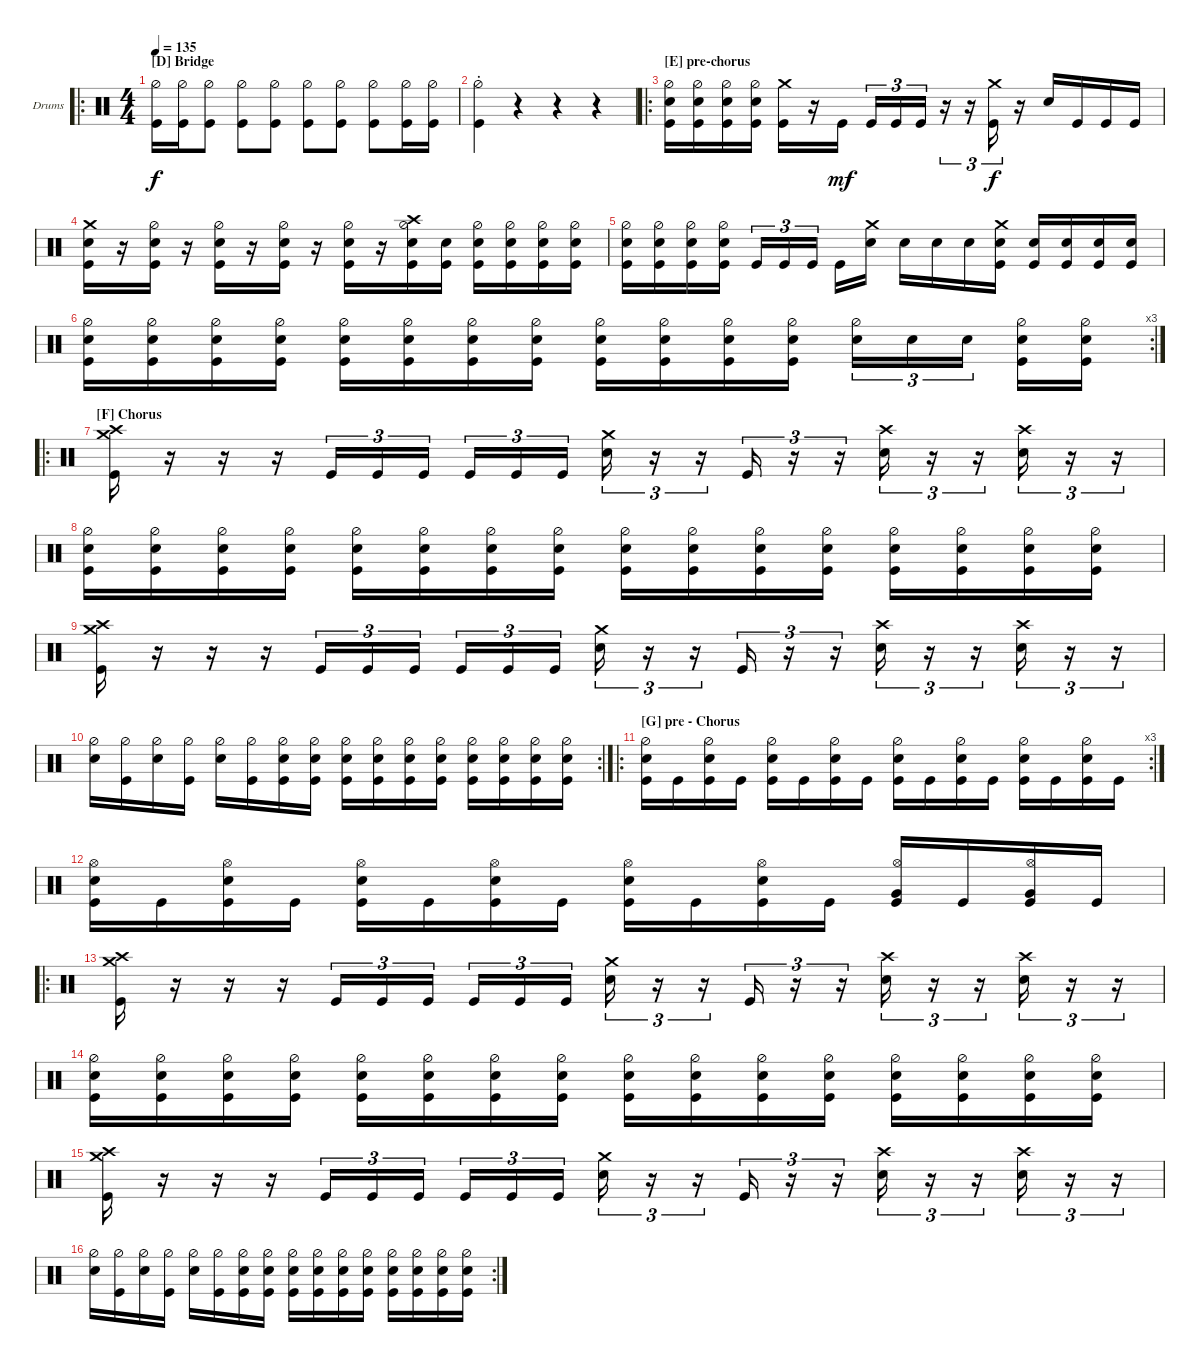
\bracketExtendMode groupsimilarinstruments
\firstSystemTrackNameOrientation horizontal
\otherSystemsTrackNameOrientation horizontal
\track ("Drumkit" "Drums") {instrument percussion}
\staff {score}
\articulation defaults
\ro
\ts (4 4)
\section ("D" "Bridge")
\tempo 135
\clef neutral
\ks c
("Hi-Hat (half)" "Kick (hit)").16{dy f} ("Hi-Hat (half)" "Kick (hit)").16 ("Hi-Hat (half)" "Kick (hit)").8 ("Hi-Hat (half)" "Kick (hit)").8 ("Hi-Hat (half)" "Kick (hit)").8 ("Hi-Hat (half)" "Kick (hit)").8 ("Hi-Hat (half)" "Kick (hit)").8 ("Hi-Hat (half)" "Kick (hit)").8 ("Hi-Hat (half)" "Kick (hit)").16 ("Hi-Hat (half)" "Kick (hit)").16 |
("Hi-Hat (half)"{st} "Kick (hit)").4 r.4 r.4 r.4 |
\ro
\section ("E" "pre-chorus")
("Snare (hit) 2" "Kick (hit)" "Hi-Hat (half)").16 ("Snare (hit) 2" "Kick (hit)" "Hi-Hat (half)").16 ("Snare (hit) 2" "Kick (hit)" "Hi-Hat (half)").16 ("Snare (hit) 2" "Kick (hit)" "Hi-Hat (half)").16 ("Kick (hit)" "Crash medium (hit)").16 r.16 "Kick (hit)".16{dy mf} "Kick (hit)".16{tu (3 2)} "Kick (hit)".16{tu (3 2)} "Kick (hit)".16{tu (3 2)} r.16{tu (3 2)} r.16{tu (3 2)} ("Crash medium (hit)" "Kick (hit)").16{tu (3 2) dy f} r.16 "Snare (hit) 2".16 "Kick (hit)".16 "Kick (hit)".16 "Kick (hit)".16 |
("Snare (hit) 2" "Crash medium (hit)" "Kick (hit)").16 r.16 ("Snare (hit) 2" "Hi-Hat (half)" "Kick (hit)").16 r.16 ("Snare (hit) 2" "Hi-Hat (half)" "Kick (hit)").16 r.16 ("Snare (hit) 2" "Hi-Hat (half)" "Kick (hit)").16 r.16 ("Hi-Hat (half)" "Snare (hit) 2" "Kick (hit)").16 r.16 ("Hi-Hat (half)" "Snare (hit) 2" "Crash high (hit)" "Kick (hit)").16 ("Snare (hit) 2" "Kick (hit)").16 ("Snare (hit) 2" "Hi-Hat (half)" "Kick (hit)").16 ("Snare (hit) 2" "Hi-Hat (half)" "Kick (hit)").16 ("Snare (hit) 2" "Hi-Hat (half)" "Kick (hit)").16 ("Snare (hit) 2" "Hi-Hat (half)" "Kick (hit)").16 |
("Snare (hit) 2" "Hi-Hat (half)" "Kick (hit)").16 ("Snare (hit) 2" "Hi-Hat (half)" "Kick (hit)").16 ("Snare (hit) 2" "Hi-Hat (half)" "Kick (hit)").16 ("Snare (hit) 2" "Hi-Hat (half)" "Kick (hit)").16 "Kick (hit)".16{tu (3 2)} "Kick (hit)".16{tu (3 2)} "Kick (hit)".16{tu (3 2)} "Kick (hit)".16 ("Snare (hit) 2" "Crash medium (hit)").16 "Snare (hit) 2".16 "Snare (hit) 2".16 "Snare (hit) 2".16 ("Kick (hit)" "Snare (hit) 2" "Crash medium (hit)").16 ("Kick (hit)" "Snare (hit) 2").16 ("Kick (hit)" "Snare (hit) 2").16 ("Kick (hit)" "Snare (hit) 2").16 ("Kick (hit)" "Snare (hit) 2").16 |
\rc 3
("Kick (hit)" "Snare (hit) 2" "Hi-Hat (half)").16 ("Kick (hit)" "Snare (hit) 2" "Hi-Hat (half)").16 ("Kick (hit)" "Snare (hit) 2" "Hi-Hat (half)").16 ("Kick (hit)" "Snare (hit) 2" "Hi-Hat (half)").16 ("Kick (hit)" "Snare (hit) 2" "Hi-Hat (half)").16 ("Kick (hit)" "Snare (hit) 2" "Hi-Hat (half)").16 ("Kick (hit)" "Snare (hit) 2" "Hi-Hat (half)").16 ("Kick (hit)" "Snare (hit) 2" "Hi-Hat (half)").16 ("Kick (hit)" "Snare (hit) 2" "Hi-Hat (half)").16 ("Kick (hit)" "Snare (hit) 2" "Hi-Hat (half)").16 ("Kick (hit)" "Snare (hit) 2" "Hi-Hat (half)").16 ("Kick (hit)" "Snare (hit) 2" "Hi-Hat (half)").16 ("Snare (hit) 2" "Hi-Hat (half)").16{tu (3 2)} "Snare (hit) 2".16{tu (3 2)} "Snare (hit) 2".16{tu (3 2)} ("Kick (hit)" "Snare (hit) 2" "Hi-Hat (half)").16 ("Kick (hit)" "Snare (hit) 2" "Hi-Hat (half)").16 |
\ro
\section ("F" "Chorus")
("Kick (hit)" "Crash medium (hit)" "Crash high (hit)").16 r.16 r.16 r.16 "Kick (hit)".16{tu (3 2)} "Kick (hit)".16{tu (3 2)} "Kick (hit)".16{tu (3 2)} "Kick (hit)".16{tu (3 2)} "Kick (hit)".16{tu (3 2)} "Kick (hit)".16{tu (3 2)} ("Snare (hit) 2" "Crash medium (hit)").16{tu (3 2)} r.16{tu (3 2)} r.16{tu (3 2)} "Kick (hit)".16{tu (3 2)} r.16{tu (3 2)} r.16{tu (3 2)} ("Snare (hit) 2" "Crash high (hit)").16{tu (3 2)} r.16{tu (3 2)} r.16{tu (3 2)} ("Snare (hit) 2" "Crash high (hit)").16{tu (3 2)} r.16{tu (3 2)} r.16{tu (3 2)} |
("Kick (hit)" "Snare (hit) 2" "Hi-Hat (half)").16 ("Kick (hit)" "Snare (hit) 2" "Hi-Hat (half)").16 ("Kick (hit)" "Snare (hit) 2" "Hi-Hat (half)").16 ("Kick (hit)" "Snare (hit) 2" "Hi-Hat (half)").16 ("Kick (hit)" "Snare (hit) 2" "Hi-Hat (half)").16 ("Kick (hit)" "Snare (hit) 2" "Hi-Hat (half)").16 ("Kick (hit)" "Snare (hit) 2" "Hi-Hat (half)").16 ("Kick (hit)" "Snare (hit) 2" "Hi-Hat (half)").16 ("Kick (hit)" "Snare (hit) 2" "Hi-Hat (half)").16 ("Kick (hit)" "Snare (hit) 2" "Hi-Hat (half)").16 ("Kick (hit)" "Snare (hit) 2" "Hi-Hat (half)").16 ("Kick (hit)" "Snare (hit) 2" "Hi-Hat (half)").16 ("Kick (hit)" "Snare (hit) 2" "Hi-Hat (half)").16 ("Kick (hit)" "Snare (hit) 2" "Hi-Hat (half)").16 ("Kick (hit)" "Snare (hit) 2" "Hi-Hat (half)").16 ("Kick (hit)" "Snare (hit) 2" "Hi-Hat (half)").16 |
("Kick (hit)" "Crash medium (hit)" "Crash high (hit)").16 r.16 r.16 r.16 "Kick (hit)".16{tu (3 2)} "Kick (hit)".16{tu (3 2)} "Kick (hit)".16{tu (3 2)} "Kick (hit)".16{tu (3 2)} "Kick (hit)".16{tu (3 2)} "Kick (hit)".16{tu (3 2)} ("Snare (hit) 2" "Crash medium (hit)").16{tu (3 2)} r.16{tu (3 2)} r.16{tu (3 2)} "Kick (hit)".16{tu (3 2)} r.16{tu (3 2)} r.16{tu (3 2)} ("Snare (hit) 2" "Crash high (hit)").16{tu (3 2)} r.16{tu (3 2)} r.16{tu (3 2)} ("Snare (hit) 2" "Crash high (hit)").16{tu (3 2)} r.16{tu (3 2)} r.16{tu (3 2)} |
\rc 2
("Snare (hit) 2" "Hi-Hat (half)").16 ("Kick (hit)" "Hi-Hat (half)").16 ("Snare (hit) 2" "Hi-Hat (half)").16 ("Kick (hit)" "Hi-Hat (half)").16 ("Snare (hit) 2" "Hi-Hat (half)").16 ("Kick (hit)" "Hi-Hat (half)").16 ("Kick (hit)" "Snare (hit) 2" "Hi-Hat (half)").16 ("Kick (hit)" "Snare (hit) 2" "Hi-Hat (half)").16 ("Kick (hit)" "Snare (hit) 2" "Hi-Hat (half)").16 ("Kick (hit)" "Snare (hit) 2" "Hi-Hat (half)").16 ("Kick (hit)" "Snare (hit) 2" "Hi-Hat (half)").16 ("Kick (hit)" "Snare (hit) 2" "Hi-Hat (half)").16 ("Kick (hit)" "Snare (hit) 2" "Hi-Hat (half)").16 ("Kick (hit)" "Snare (hit) 2" "Hi-Hat (half)").16 ("Kick (hit)" "Snare (hit) 2" "Hi-Hat (half)").16 ("Kick (hit)" "Snare (hit) 2" "Hi-Hat (half)").16 |
\ro
\rc 3
\section ("G" "pre - Chorus")
("Kick (hit)" "Snare (hit) 2" "Hi-Hat (half)").16 "Kick (hit)".16 ("Kick (hit)" "Snare (hit) 2" "Hi-Hat (half)").16 "Kick (hit)".16 ("Kick (hit)" "Snare (hit) 2" "Hi-Hat (half)").16 "Kick (hit)".16 ("Kick (hit)" "Snare (hit) 2" "Hi-Hat (half)").16 "Kick (hit)".16 ("Kick (hit)" "Snare (hit) 2" "Hi-Hat (half)").16 "Kick (hit)".16 ("Kick (hit)" "Snare (hit) 2" "Hi-Hat (half)").16 "Kick (hit)".16 ("Kick (hit)" "Snare (hit) 2" "Hi-Hat (half)").16 "Kick (hit)".16 ("Kick (hit)" "Snare (hit) 2" "Hi-Hat (half)").16 "Kick (hit)".16 |
("Kick (hit)" "Snare (hit) 2" "Hi-Hat (open)").16 "Kick (hit)".16 ("Kick (hit)" "Snare (hit) 2" "Hi-Hat (open)").16 "Kick (hit)".16 ("Kick (hit)" "Snare (hit) 2" "Hi-Hat (open)").16 "Kick (hit)".16 ("Kick (hit)" "Snare (hit) 2" "Hi-Hat (open)").16 "Kick (hit)".16 ("Kick (hit)" "Snare (hit) 2" "Hi-Hat (open)").16 "Kick (hit)".16 ("Kick (hit)" "Snare (hit) 2" "Hi-Hat (open)").16 "Kick (hit)".16 ("Kick (hit)" "Hi-Hat (open)" "Very Low Tom (hit)").16 "Kick (hit)".16 ("Kick (hit)" "Hi-Hat (open)" "Very Low Tom (hit)").16 "Kick (hit)".16 |
\ro
("Kick (hit)" "Crash medium (hit)" "Crash high (hit)").16 r.16 r.16 r.16 "Kick (hit)".16{tu (3 2)} "Kick (hit)".16{tu (3 2)} "Kick (hit)".16{tu (3 2)} "Kick (hit)".16{tu (3 2)} "Kick (hit)".16{tu (3 2)} "Kick (hit)".16{tu (3 2)} ("Snare (hit) 2" "Crash medium (hit)").16{tu (3 2)} r.16{tu (3 2)} r.16{tu (3 2)} "Kick (hit)".16{tu (3 2)} r.16{tu (3 2)} r.16{tu (3 2)} ("Snare (hit) 2" "Crash high (hit)").16{tu (3 2)} r.16{tu (3 2)} r.16{tu (3 2)} ("Snare (hit) 2" "Crash high (hit)").16{tu (3 2)} r.16{tu (3 2)} r.16{tu (3 2)} |
("Kick (hit)" "Snare (hit) 2" "Hi-Hat (half)").16 ("Kick (hit)" "Snare (hit) 2" "Hi-Hat (half)").16 ("Kick (hit)" "Snare (hit) 2" "Hi-Hat (half)").16 ("Kick (hit)" "Snare (hit) 2" "Hi-Hat (half)").16 ("Kick (hit)" "Snare (hit) 2" "Hi-Hat (half)").16 ("Kick (hit)" "Snare (hit) 2" "Hi-Hat (half)").16 ("Kick (hit)" "Snare (hit) 2" "Hi-Hat (half)").16 ("Kick (hit)" "Snare (hit) 2" "Hi-Hat (half)").16 ("Kick (hit)" "Snare (hit) 2" "Hi-Hat (half)").16 ("Kick (hit)" "Snare (hit) 2" "Hi-Hat (half)").16 ("Kick (hit)" "Snare (hit) 2" "Hi-Hat (half)").16 ("Kick (hit)" "Snare (hit) 2" "Hi-Hat (half)").16 ("Kick (hit)" "Snare (hit) 2" "Hi-Hat (half)").16 ("Kick (hit)" "Snare (hit) 2" "Hi-Hat (half)").16 ("Kick (hit)" "Snare (hit) 2" "Hi-Hat (half)").16 ("Kick (hit)" "Snare (hit) 2" "Hi-Hat (half)").16 |
("Kick (hit)" "Crash medium (hit)" "Crash high (hit)").16 r.16 r.16 r.16 "Kick (hit)".16{tu (3 2)} "Kick (hit)".16{tu (3 2)} "Kick (hit)".16{tu (3 2)} "Kick (hit)".16{tu (3 2)} "Kick (hit)".16{tu (3 2)} "Kick (hit)".16{tu (3 2)} ("Snare (hit) 2" "Crash medium (hit)").16{tu (3 2)} r.16{tu (3 2)} r.16{tu (3 2)} "Kick (hit)".16{tu (3 2)} r.16{tu (3 2)} r.16{tu (3 2)} ("Snare (hit) 2" "Crash high (hit)").16{tu (3 2)} r.16{tu (3 2)} r.16{tu (3 2)} ("Snare (hit) 2" "Crash high (hit)").16{tu (3 2)} r.16{tu (3 2)} r.16{tu (3 2)} |
\rc 2
("Snare (hit) 2" "Hi-Hat (half)").16 ("Kick (hit)" "Hi-Hat (half)").16 ("Snare (hit) 2" "Hi-Hat (half)").16 ("Kick (hit)" "Hi-Hat (half)").16 ("Snare (hit) 2" "Hi-Hat (half)").16 ("Kick (hit)" "Hi-Hat (half)").16 ("Kick (hit)" "Snare (hit) 2" "Hi-Hat (half)").16 ("Kick (hit)" "Snare (hit) 2" "Hi-Hat (half)").16 ("Kick (hit)" "Snare (hit) 2" "Hi-Hat (half)").16 ("Kick (hit)" "Snare (hit) 2" "Hi-Hat (half)").16 ("Kick (hit)" "Snare (hit) 2" "Hi-Hat (half)").16 ("Kick (hit)" "Snare (hit) 2" "Hi-Hat (half)").16 ("Kick (hit)" "Snare (hit) 2" "Hi-Hat (half)").16 ("Kick (hit)" "Snare (hit) 2" "Hi-Hat (half)").16 ("Kick (hit)" "Snare (hit) 2" "Hi-Hat (half)").16 ("Kick (hit)" "Snare (hit) 2" "Hi-Hat (half)").16
